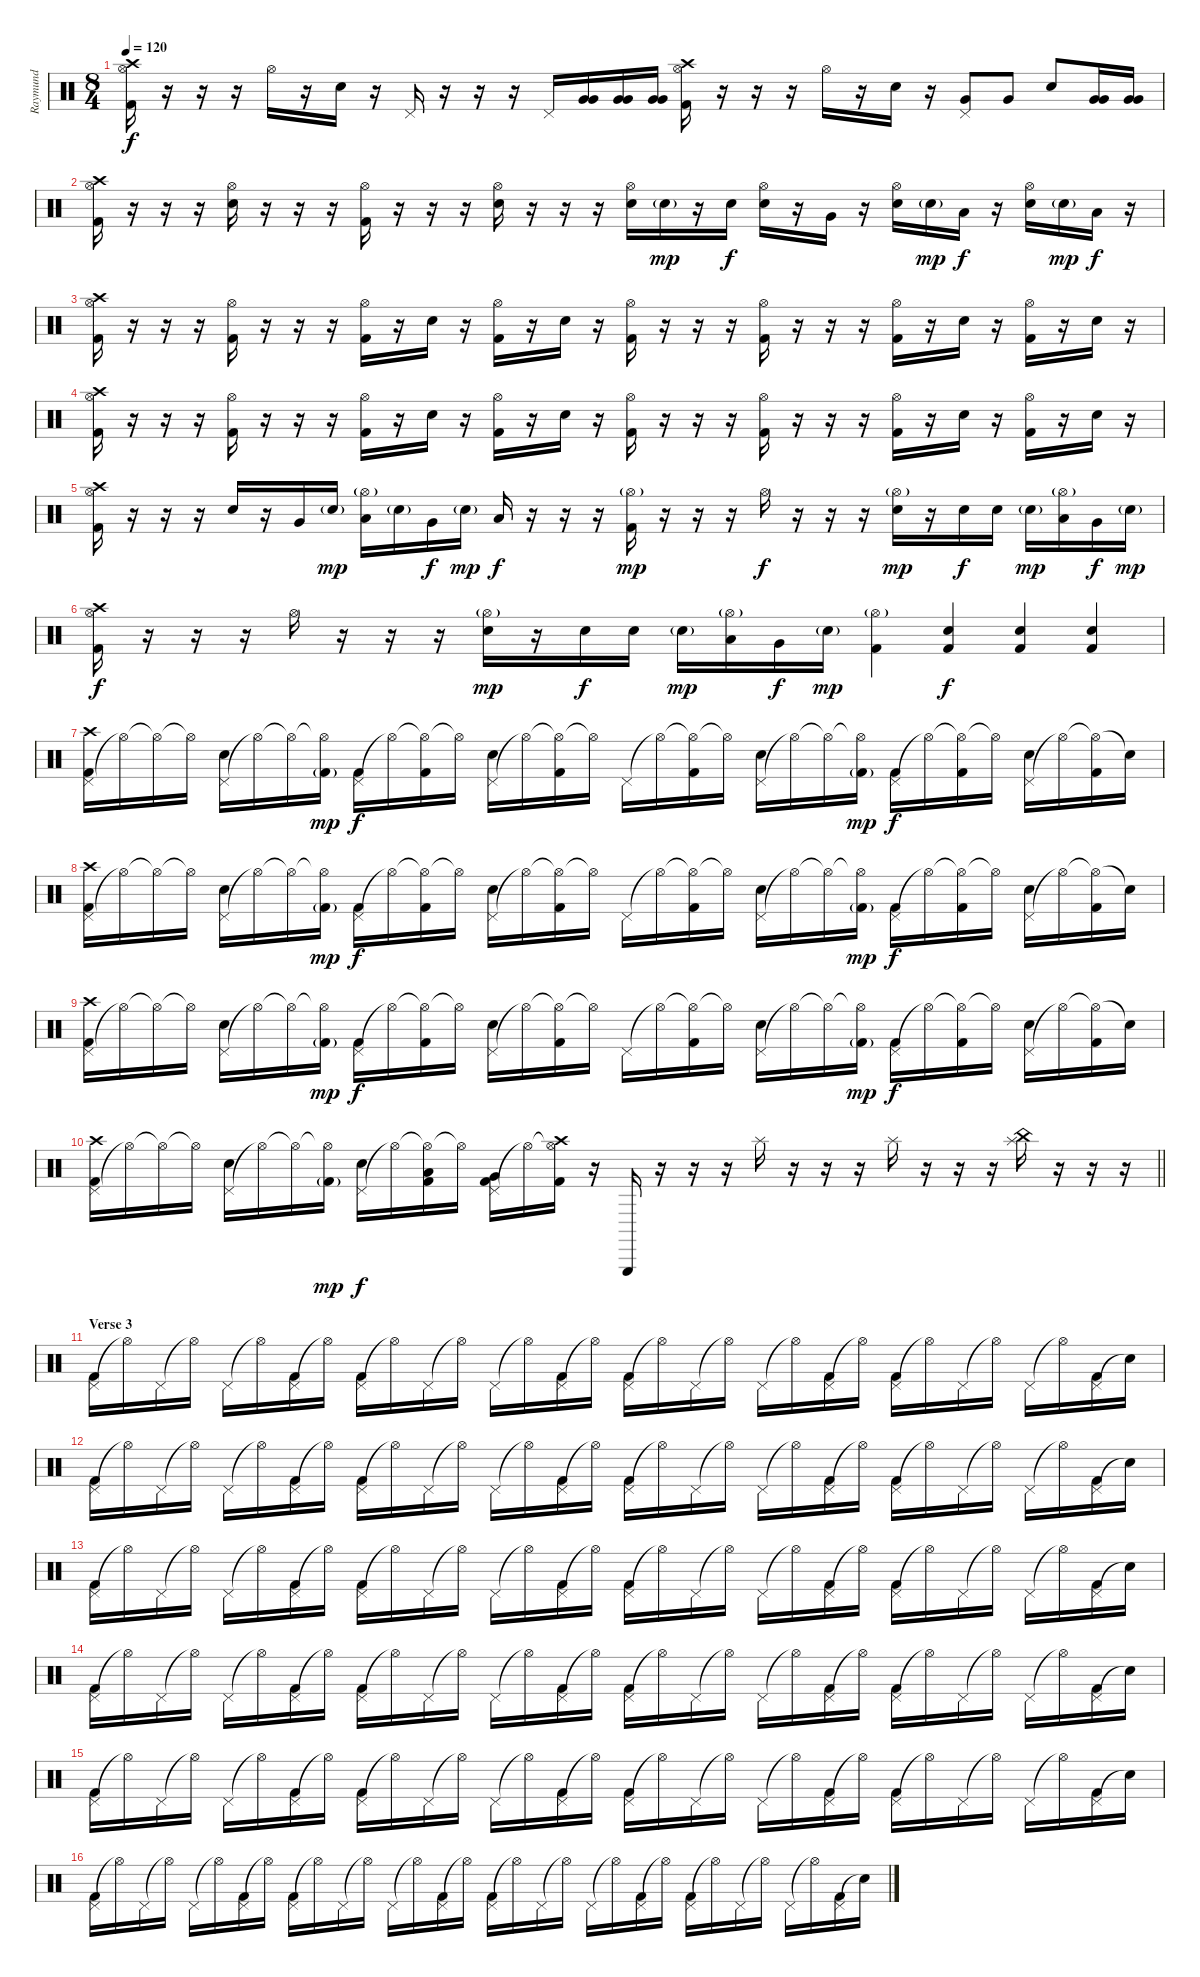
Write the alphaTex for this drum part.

\track ("Raymund" "Raymund") {instrument percussion}
\staff {score}
\articulation defaults
\ts (8 4)
\tempo 120
\clef neutral
\ks c
("Hi-Hat (open)" "Kick (hit) 2" "Crash high (hit)").16{dy f} r.16 r.16 r.16 "Hi-Hat (open)".16 r.16 "Snare (hit) 2".16 r.16 "Pedal Hi-Hat (hit)".16 r.16 r.16 r.16 "Pedal Hi-Hat (hit)".16 ("Very Low Tom (hit)" "Very Low Tom (hit)").16 ("Very Low Tom (hit)" "Very Low Tom (hit)").16 ("Very Low Tom (hit)" "Very Low Tom (hit)").16 ("Hi-Hat (open)" "Kick (hit) 2" "Crash high (hit)").16 r.16 r.16 r.16 "Hi-Hat (open)".16 r.16 "Snare (hit) 2".16 r.16 ("Pedal Hi-Hat (hit)" "Very Low Tom (hit)").8 "Very Low Tom (hit)".8 "Snare (hit) 2".8 ("Very Low Tom (hit)" "Very Low Tom (hit)").16 ("Very Low Tom (hit)" "Very Low Tom (hit)").16 |
("Hi-Hat (open)" "Kick (hit) 2" "Crash high (hit)").16 r.16 r.16 r.16 ("Hi-Hat (open)" "Snare (hit) 2").16 r.16 r.16 r.16 ("Hi-Hat (open)" "Kick (hit) 2").16 r.16 r.16 r.16 ("Hi-Hat (open)" "Snare (hit) 2").16 r.16 r.16 r.16 ("Hi-Hat (open)" "Snare (hit) 2").16 "Snare (hit) 2"{g}.16{dy mp} r.16 "Snare (hit) 2".16{dy f} ("Hi-Hat (open)" "Snare (hit) 2").16 r.16 "Very Low Tom (hit)".16 r.16 ("Hi-Hat (open)" "Snare (hit) 2").16 "Snare (hit) 2"{g}.16{dy mp} "Low Tom (hit)".16{dy f} r.16 ("Hi-Hat (open)" "Snare (hit) 2").16 "Snare (hit) 2"{g}.16{dy mp} "Low Tom (hit)".16{dy f} r.16 |
("Hi-Hat (open)" "Kick (hit) 2" "Crash high (hit)").16 r.16 r.16 r.16 ("Hi-Hat (open)" "Kick (hit) 2").16 r.16 r.16 r.16 ("Hi-Hat (open)" "Kick (hit) 2").16 r.16 "Snare (hit) 2".16 r.16 ("Hi-Hat (open)" "Kick (hit) 2").16 r.16 "Snare (hit) 2".16 r.16 ("Hi-Hat (open)" "Kick (hit) 2").16 r.16 r.16 r.16 ("Hi-Hat (open)" "Kick (hit) 2").16 r.16 r.16 r.16 ("Hi-Hat (open)" "Kick (hit) 2").16 r.16 "Snare (hit) 2".16 r.16 ("Hi-Hat (open)" "Kick (hit) 2").16 r.16 "Snare (hit) 2".16 r.16 |
("Hi-Hat (open)" "Kick (hit) 2" "Crash high (hit)").16 r.16 r.16 r.16 ("Hi-Hat (open)" "Kick (hit) 2").16 r.16 r.16 r.16 ("Hi-Hat (open)" "Kick (hit) 2").16 r.16 "Snare (hit) 2".16 r.16 ("Hi-Hat (open)" "Kick (hit) 2").16 r.16 "Snare (hit) 2".16 r.16 ("Hi-Hat (open)" "Kick (hit) 2").16 r.16 r.16 r.16 ("Hi-Hat (open)" "Kick (hit) 2").16 r.16 r.16 r.16 ("Hi-Hat (open)" "Kick (hit) 2").16 r.16 "Snare (hit) 2".16 r.16 ("Hi-Hat (open)" "Kick (hit) 2").16 r.16 "Snare (hit) 2".16 r.16 |
("Hi-Hat (open)" "Kick (hit) 2" "Crash high (hit)").16 r.16 r.16 r.16 "Snare (hit) 2".16 r.16 "Very Low Tom (hit)".16 "Snare (hit) 2"{g}.16{dy mp} ("Hi-Hat (open)"{g} "Low Tom (hit)").16 "Snare (hit) 2"{g}.16 "Very Low Tom (hit)".16{dy f} "Snare (hit) 2"{g}.16{dy mp} "Low Tom (hit)".16{dy f} r.16 r.16 r.16 ("Hi-Hat (open)"{g} "Kick (hit) 2").16{dy mp} r.16 r.16 r.16 "Hi-Hat (open)".16{dy f} r.16 r.16 r.16 ("Hi-Hat (open)"{g} "Snare (hit) 2").16{dy mp} r.16 "Snare (hit) 2".16{dy f} "Snare (hit) 2".16 "Snare (hit) 2"{g}.16{dy mp} ("Hi-Hat (open)"{g} "Low Tom (hit)").16 "Very Low Tom (hit)".16{dy f} "Snare (hit) 2"{g}.16{dy mp} |
("Hi-Hat (open)" "Kick (hit) 2" "Crash high (hit)").16{dy f} r.16 r.16 r.16 "Hi-Hat (open)".16 r.16 r.16 r.16 ("Hi-Hat (open)"{g} "Snare (hit) 2").16{dy mp} r.16 "Snare (hit) 2".16{dy f} "Snare (hit) 2".16 "Snare (hit) 2"{g}.16{dy mp} ("Hi-Hat (open)"{g} "Low Tom (hit)").16 "Very Low Tom (hit)".16{dy f} "Snare (hit) 2"{g}.16{dy mp} ("Hi-Hat (open)"{g} "Kick (hit) 2").4 ("Kick (hit) 2" "Snare (hit) 2").4{dy f} ("Kick (hit) 2" "Snare (hit) 2").4 ("Kick (hit) 2" "Snare (hit) 2").4 |
("Pedal Hi-Hat (hit)" "Kick (hit) 2" "Crash high (hit)").16 "Hi-Hat (open)"{t}.16 "Hi-Hat (open)"{t}.16 "Hi-Hat (open)"{t}.16 ("Pedal Hi-Hat (hit)" "Snare (hit) 2").16 "Hi-Hat (open)"{t}.16 "Hi-Hat (open)"{t}.16 ("Hi-Hat (open)"{t} "Kick (hit) 2"{g}).16{dy mp} ("Pedal Hi-Hat (hit)" "Kick (hit) 2").16{dy f} "Hi-Hat (open)"{t}.16 ("Hi-Hat (open)"{t} "Kick (hit) 2").16 "Hi-Hat (open)"{t}.16 ("Pedal Hi-Hat (hit)" "Snare (hit) 2").16 "Hi-Hat (open)"{t}.16 ("Hi-Hat (open)"{t} "Kick (hit) 2").16 "Hi-Hat (open)"{t}.16 "Pedal Hi-Hat (hit)".16 "Hi-Hat (open)"{t}.16 ("Hi-Hat (open)"{t} "Kick (hit) 2").16 "Hi-Hat (open)"{t}.16 ("Pedal Hi-Hat (hit)" "Snare (hit) 2").16 "Hi-Hat (open)"{t}.16 "Hi-Hat (open)"{t}.16 ("Hi-Hat (open)"{t} "Kick (hit) 2"{g}).16{dy mp} ("Pedal Hi-Hat (hit)" "Kick (hit) 2").16{dy f} "Hi-Hat (open)"{t}.16 ("Hi-Hat (open)"{t} "Kick (hit) 2").16 "Hi-Hat (open)"{t}.16 ("Pedal Hi-Hat (hit)" "Snare (hit) 2").16 "Hi-Hat (open)"{t}.16 ("Hi-Hat (open)"{t} "Kick (hit) 2").16 "Snare (hit)"{t}.16 |
("Pedal Hi-Hat (hit)" "Kick (hit) 2" "Crash high (hit)").16 "Hi-Hat (open)"{t}.16 "Hi-Hat (open)"{t}.16 "Hi-Hat (open)"{t}.16 ("Pedal Hi-Hat (hit)" "Snare (hit) 2").16 "Hi-Hat (open)"{t}.16 "Hi-Hat (open)"{t}.16 ("Hi-Hat (open)"{t} "Kick (hit) 2"{g}).16{dy mp} ("Pedal Hi-Hat (hit)" "Kick (hit) 2").16{dy f} "Hi-Hat (open)"{t}.16 ("Hi-Hat (open)"{t} "Kick (hit) 2").16 "Hi-Hat (open)"{t}.16 ("Pedal Hi-Hat (hit)" "Snare (hit) 2").16 "Hi-Hat (open)"{t}.16 ("Hi-Hat (open)"{t} "Kick (hit) 2").16 "Hi-Hat (open)"{t}.16 "Pedal Hi-Hat (hit)".16 "Hi-Hat (open)"{t}.16 ("Hi-Hat (open)"{t} "Kick (hit) 2").16 "Hi-Hat (open)"{t}.16 ("Pedal Hi-Hat (hit)" "Snare (hit) 2").16 "Hi-Hat (open)"{t}.16 "Hi-Hat (open)"{t}.16 ("Hi-Hat (open)"{t} "Kick (hit) 2"{g}).16{dy mp} ("Pedal Hi-Hat (hit)" "Kick (hit) 2").16{dy f} "Hi-Hat (open)"{t}.16 ("Hi-Hat (open)"{t} "Kick (hit) 2").16 "Hi-Hat (open)"{t}.16 ("Pedal Hi-Hat (hit)" "Snare (hit) 2").16 "Hi-Hat (open)"{t}.16 ("Hi-Hat (open)"{t} "Kick (hit) 2").16 "Snare (hit)"{t}.16 |
("Pedal Hi-Hat (hit)" "Kick (hit) 2" "Crash high (hit)").16 "Hi-Hat (open)"{t}.16 "Hi-Hat (open)"{t}.16 "Hi-Hat (open)"{t}.16 ("Pedal Hi-Hat (hit)" "Snare (hit) 2").16 "Hi-Hat (open)"{t}.16 "Hi-Hat (open)"{t}.16 ("Hi-Hat (open)"{t} "Kick (hit) 2"{g}).16{dy mp} ("Pedal Hi-Hat (hit)" "Kick (hit) 2").16{dy f} "Hi-Hat (open)"{t}.16 ("Hi-Hat (open)"{t} "Kick (hit) 2").16 "Hi-Hat (open)"{t}.16 ("Pedal Hi-Hat (hit)" "Snare (hit) 2").16 "Hi-Hat (open)"{t}.16 ("Hi-Hat (open)"{t} "Kick (hit) 2").16 "Hi-Hat (open)"{t}.16 "Pedal Hi-Hat (hit)".16 "Hi-Hat (open)"{t}.16 ("Hi-Hat (open)"{t} "Kick (hit) 2").16 "Hi-Hat (open)"{t}.16 ("Pedal Hi-Hat (hit)" "Snare (hit) 2").16 "Hi-Hat (open)"{t}.16 "Hi-Hat (open)"{t}.16 ("Hi-Hat (open)"{t} "Kick (hit) 2"{g}).16{dy mp} ("Pedal Hi-Hat (hit)" "Kick (hit) 2").16{dy f} "Hi-Hat (open)"{t}.16 ("Hi-Hat (open)"{t} "Kick (hit) 2").16 "Hi-Hat (open)"{t}.16 ("Pedal Hi-Hat (hit)" "Snare (hit) 2").16 "Hi-Hat (open)"{t}.16 ("Hi-Hat (open)"{t} "Kick (hit) 2").16 "Snare (hit)"{t}.16 |
\barLineRight lightlight
("Pedal Hi-Hat (hit)" "Kick (hit) 2" "Crash high (hit)").16 "Hi-Hat (open)"{t}.16 "Hi-Hat (open)"{t}.16 "Hi-Hat (open)"{t}.16 ("Pedal Hi-Hat (hit)" "Snare (hit) 2").16 "Hi-Hat (open)"{t}.16 "Hi-Hat (open)"{t}.16 ("Hi-Hat (open)"{t} "Kick (hit) 2"{g}).16{dy mp} ("Pedal Hi-Hat (hit)" "Snare (hit) 2").16{dy f} "Hi-Hat (open)"{t}.16 ("Hi-Hat (open)"{t} "Low Tom (hit)" "Kick (hit) 2").16 "Hi-Hat (open)"{t}.16 ("Pedal Hi-Hat (hit)" "Very Low Tom (hit)" "Kick (hit) 2").16 "Hi-Hat (open)"{t}.16 ("Hi-Hat (open)"{t} "Kick (hit) 2" "Crash high (hit)").16 r.16 "Triangle (hit)".16 r.16 r.16 r.16 "Splash (hit)".16 r.16 r.16 r.16 "Splash (hit)".16 r.16 r.16 r.16 ("Splash (hit)" "China (hit)").16 r.16 r.16 r.16 |
\section ("" "Verse 3")
("Pedal Hi-Hat (hit)" "Kick (hit) 2").16 "Hi-Hat (open)"{t}.16 "Pedal Hi-Hat (hit)".16 "Hi-Hat (open)"{t}.16 "Pedal Hi-Hat (hit)".16 "Hi-Hat (open)"{t}.16 ("Pedal Hi-Hat (hit)" "Kick (hit) 2").16 "Hi-Hat (open)"{t}.16 ("Pedal Hi-Hat (hit)" "Kick (hit) 2").16 "Hi-Hat (open)"{t}.16 "Pedal Hi-Hat (hit)".16 "Hi-Hat (open)"{t}.16 "Pedal Hi-Hat (hit)".16 "Hi-Hat (open)"{t}.16 ("Pedal Hi-Hat (hit)" "Kick (hit) 2").16 "Hi-Hat (open)"{t}.16 ("Pedal Hi-Hat (hit)" "Kick (hit) 2").16 "Hi-Hat (open)"{t}.16 "Pedal Hi-Hat (hit)".16 "Hi-Hat (open)"{t}.16 "Pedal Hi-Hat (hit)".16 "Hi-Hat (open)"{t}.16 ("Pedal Hi-Hat (hit)" "Kick (hit) 2").16 "Hi-Hat (open)"{t}.16 ("Pedal Hi-Hat (hit)" "Kick (hit) 2").16 "Hi-Hat (open)"{t}.16 "Pedal Hi-Hat (hit)".16 "Hi-Hat (open)"{t}.16 "Pedal Hi-Hat (hit)".16 "Hi-Hat (open)"{t}.16 ("Pedal Hi-Hat (hit)" "Kick (hit) 2").16 "Snare (hit)"{t}.16 |
("Pedal Hi-Hat (hit)" "Kick (hit) 2").16 "Hi-Hat (open)"{t}.16 "Pedal Hi-Hat (hit)".16 "Hi-Hat (open)"{t}.16 "Pedal Hi-Hat (hit)".16 "Hi-Hat (open)"{t}.16 ("Pedal Hi-Hat (hit)" "Kick (hit) 2").16 "Hi-Hat (open)"{t}.16 ("Pedal Hi-Hat (hit)" "Kick (hit) 2").16 "Hi-Hat (open)"{t}.16 "Pedal Hi-Hat (hit)".16 "Hi-Hat (open)"{t}.16 "Pedal Hi-Hat (hit)".16 "Hi-Hat (open)"{t}.16 ("Pedal Hi-Hat (hit)" "Kick (hit) 2").16 "Hi-Hat (open)"{t}.16 ("Pedal Hi-Hat (hit)" "Kick (hit) 2").16 "Hi-Hat (open)"{t}.16 "Pedal Hi-Hat (hit)".16 "Hi-Hat (open)"{t}.16 "Pedal Hi-Hat (hit)".16 "Hi-Hat (open)"{t}.16 ("Pedal Hi-Hat (hit)" "Kick (hit) 2").16 "Hi-Hat (open)"{t}.16 ("Pedal Hi-Hat (hit)" "Kick (hit) 2").16 "Hi-Hat (open)"{t}.16 "Pedal Hi-Hat (hit)".16 "Hi-Hat (open)"{t}.16 "Pedal Hi-Hat (hit)".16 "Hi-Hat (open)"{t}.16 ("Pedal Hi-Hat (hit)" "Kick (hit) 2").16 "Snare (hit)"{t}.16 |
("Pedal Hi-Hat (hit)" "Kick (hit) 2").16 "Hi-Hat (open)"{t}.16 "Pedal Hi-Hat (hit)".16 "Hi-Hat (open)"{t}.16 "Pedal Hi-Hat (hit)".16 "Hi-Hat (open)"{t}.16 ("Pedal Hi-Hat (hit)" "Kick (hit) 2").16 "Hi-Hat (open)"{t}.16 ("Pedal Hi-Hat (hit)" "Kick (hit) 2").16 "Hi-Hat (open)"{t}.16 "Pedal Hi-Hat (hit)".16 "Hi-Hat (open)"{t}.16 "Pedal Hi-Hat (hit)".16 "Hi-Hat (open)"{t}.16 ("Pedal Hi-Hat (hit)" "Kick (hit) 2").16 "Hi-Hat (open)"{t}.16 ("Pedal Hi-Hat (hit)" "Kick (hit) 2").16 "Hi-Hat (open)"{t}.16 "Pedal Hi-Hat (hit)".16 "Hi-Hat (open)"{t}.16 "Pedal Hi-Hat (hit)".16 "Hi-Hat (open)"{t}.16 ("Pedal Hi-Hat (hit)" "Kick (hit) 2").16 "Hi-Hat (open)"{t}.16 ("Pedal Hi-Hat (hit)" "Kick (hit) 2").16 "Hi-Hat (open)"{t}.16 "Pedal Hi-Hat (hit)".16 "Hi-Hat (open)"{t}.16 "Pedal Hi-Hat (hit)".16 "Hi-Hat (open)"{t}.16 ("Pedal Hi-Hat (hit)" "Kick (hit) 2").16 "Snare (hit)"{t}.16 |
("Pedal Hi-Hat (hit)" "Kick (hit) 2").16 "Hi-Hat (open)"{t}.16 "Pedal Hi-Hat (hit)".16 "Hi-Hat (open)"{t}.16 "Pedal Hi-Hat (hit)".16 "Hi-Hat (open)"{t}.16 ("Pedal Hi-Hat (hit)" "Kick (hit) 2").16 "Hi-Hat (open)"{t}.16 ("Pedal Hi-Hat (hit)" "Kick (hit) 2").16 "Hi-Hat (open)"{t}.16 "Pedal Hi-Hat (hit)".16 "Hi-Hat (open)"{t}.16 "Pedal Hi-Hat (hit)".16 "Hi-Hat (open)"{t}.16 ("Pedal Hi-Hat (hit)" "Kick (hit) 2").16 "Hi-Hat (open)"{t}.16 ("Pedal Hi-Hat (hit)" "Kick (hit) 2").16 "Hi-Hat (open)"{t}.16 "Pedal Hi-Hat (hit)".16 "Hi-Hat (open)"{t}.16 "Pedal Hi-Hat (hit)".16 "Hi-Hat (open)"{t}.16 ("Pedal Hi-Hat (hit)" "Kick (hit) 2").16 "Hi-Hat (open)"{t}.16 ("Pedal Hi-Hat (hit)" "Kick (hit) 2").16 "Hi-Hat (open)"{t}.16 "Pedal Hi-Hat (hit)".16 "Hi-Hat (open)"{t}.16 "Pedal Hi-Hat (hit)".16 "Hi-Hat (open)"{t}.16 ("Pedal Hi-Hat (hit)" "Kick (hit) 2").16 "Snare (hit)"{t}.16 |
("Pedal Hi-Hat (hit)" "Kick (hit) 2").16 "Hi-Hat (open)"{t}.16 "Pedal Hi-Hat (hit)".16 "Hi-Hat (open)"{t}.16 "Pedal Hi-Hat (hit)".16 "Hi-Hat (open)"{t}.16 ("Pedal Hi-Hat (hit)" "Kick (hit) 2").16 "Hi-Hat (open)"{t}.16 ("Pedal Hi-Hat (hit)" "Kick (hit) 2").16 "Hi-Hat (open)"{t}.16 "Pedal Hi-Hat (hit)".16 "Hi-Hat (open)"{t}.16 "Pedal Hi-Hat (hit)".16 "Hi-Hat (open)"{t}.16 ("Pedal Hi-Hat (hit)" "Kick (hit) 2").16 "Hi-Hat (open)"{t}.16 ("Pedal Hi-Hat (hit)" "Kick (hit) 2").16 "Hi-Hat (open)"{t}.16 "Pedal Hi-Hat (hit)".16 "Hi-Hat (open)"{t}.16 "Pedal Hi-Hat (hit)".16 "Hi-Hat (open)"{t}.16 ("Pedal Hi-Hat (hit)" "Kick (hit) 2").16 "Hi-Hat (open)"{t}.16 ("Pedal Hi-Hat (hit)" "Kick (hit) 2").16 "Hi-Hat (open)"{t}.16 "Pedal Hi-Hat (hit)".16 "Hi-Hat (open)"{t}.16 "Pedal Hi-Hat (hit)".16 "Hi-Hat (open)"{t}.16 ("Pedal Hi-Hat (hit)" "Kick (hit) 2").16 "Snare (hit)"{t}.16 |
("Pedal Hi-Hat (hit)" "Kick (hit) 2").16 "Hi-Hat (open)"{t}.16 "Pedal Hi-Hat (hit)".16 "Hi-Hat (open)"{t}.16 "Pedal Hi-Hat (hit)".16 "Hi-Hat (open)"{t}.16 ("Pedal Hi-Hat (hit)" "Kick (hit) 2").16 "Hi-Hat (open)"{t}.16 ("Pedal Hi-Hat (hit)" "Kick (hit) 2").16 "Hi-Hat (open)"{t}.16 "Pedal Hi-Hat (hit)".16 "Hi-Hat (open)"{t}.16 "Pedal Hi-Hat (hit)".16 "Hi-Hat (open)"{t}.16 ("Pedal Hi-Hat (hit)" "Kick (hit) 2").16 "Hi-Hat (open)"{t}.16 ("Pedal Hi-Hat (hit)" "Kick (hit) 2").16 "Hi-Hat (open)"{t}.16 "Pedal Hi-Hat (hit)".16 "Hi-Hat (open)"{t}.16 "Pedal Hi-Hat (hit)".16 "Hi-Hat (open)"{t}.16 ("Pedal Hi-Hat (hit)" "Kick (hit) 2").16 "Hi-Hat (open)"{t}.16 ("Pedal Hi-Hat (hit)" "Kick (hit) 2").16 "Hi-Hat (open)"{t}.16 "Pedal Hi-Hat (hit)".16 "Hi-Hat (open)"{t}.16 "Pedal Hi-Hat (hit)".16 "Hi-Hat (open)"{t}.16 ("Pedal Hi-Hat (hit)" "Kick (hit) 2").16 "Snare (hit)"{t}.16
